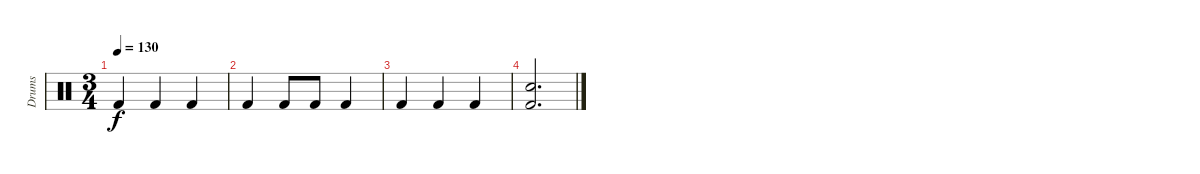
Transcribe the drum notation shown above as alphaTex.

\track ("Drums" "Drums") {instrument percussion}
\staff {score}
\articulation defaults
\ts (3 4)
\tempo 130
\clef neutral
\ks c "Kick (hit) 2".4{dy f} "Kick (hit) 2".4 "Kick (hit) 2".4
|
"Kick (hit) 2".4 "Kick (hit) 2".8 "Kick (hit) 2".8 "Kick (hit) 2".4 |
"Kick (hit) 2".4 "Kick (hit) 2".4 "Kick (hit) 2".4 |
("Kick (hit) 2" "Snare (hit) 2").2{d}
